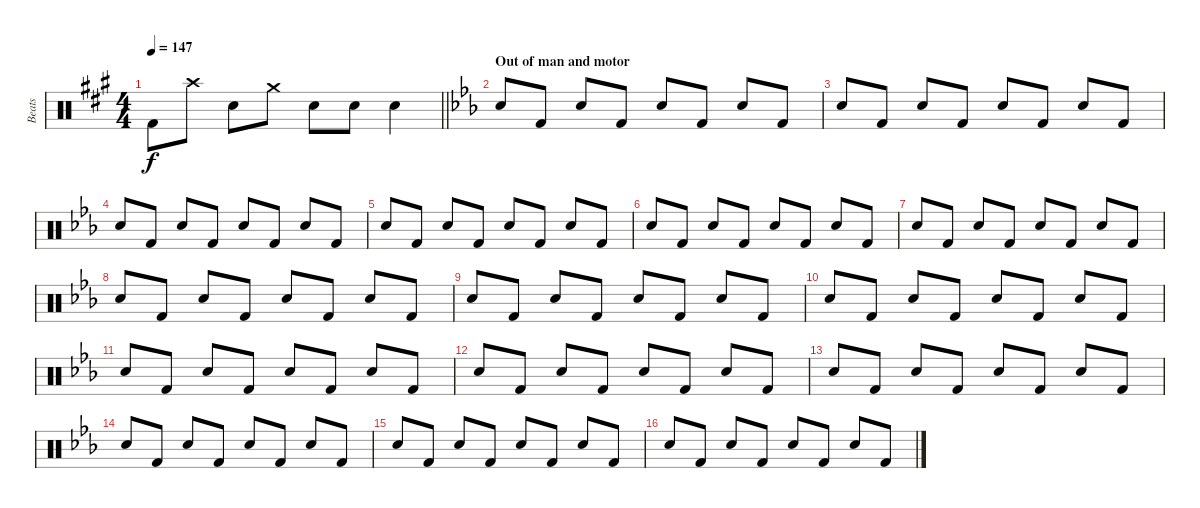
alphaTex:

\track ("Beats" "Beats") {instrument percussion}
\staff {score}
\articulation defaults
\ts (4 4)
\tempo 147
\clef neutral
\barLineRight lightlight
\ks a "Kick (hit) 2".8{dy f} "Crash high (hit)".8 "Snare (hit) 2".8 "Crash medium (hit)".8 "Snare (hit) 2".8 "Snare (hit) 2".8 "Snare (hit) 2".4
|
\section ("" "Out of man and motor")
\ks eb "Snare (hit) 2".8 "Kick (hit) 2".8 "Snare (hit) 2".8 "Kick (hit) 2".8 "Snare (hit) 2".8 "Kick (hit) 2".8 "Snare (hit) 2".8 "Kick (hit) 2".8
|
"Snare (hit) 2".8 "Kick (hit) 2".8 "Snare (hit) 2".8 "Kick (hit) 2".8 "Snare (hit) 2".8 "Kick (hit) 2".8 "Snare (hit) 2".8 "Kick (hit) 2".8 |
"Snare (hit) 2".8 "Kick (hit) 2".8 "Snare (hit) 2".8 "Kick (hit) 2".8 "Snare (hit) 2".8 "Kick (hit) 2".8 "Snare (hit) 2".8 "Kick (hit) 2".8 |
"Snare (hit) 2".8 "Kick (hit) 2".8 "Snare (hit) 2".8 "Kick (hit) 2".8 "Snare (hit) 2".8 "Kick (hit) 2".8 "Snare (hit) 2".8 "Kick (hit) 2".8 |
"Snare (hit) 2".8 "Kick (hit) 2".8 "Snare (hit) 2".8 "Kick (hit) 2".8 "Snare (hit) 2".8 "Kick (hit) 2".8 "Snare (hit) 2".8 "Kick (hit) 2".8 |
"Snare (hit) 2".8 "Kick (hit) 2".8 "Snare (hit) 2".8 "Kick (hit) 2".8 "Snare (hit) 2".8 "Kick (hit) 2".8 "Snare (hit) 2".8 "Kick (hit) 2".8 |
"Snare (hit) 2".8 "Kick (hit) 2".8 "Snare (hit) 2".8 "Kick (hit) 2".8 "Snare (hit) 2".8 "Kick (hit) 2".8 "Snare (hit) 2".8 "Kick (hit) 2".8 |
"Snare (hit) 2".8 "Kick (hit) 2".8 "Snare (hit) 2".8 "Kick (hit) 2".8 "Snare (hit) 2".8 "Kick (hit) 2".8 "Snare (hit) 2".8 "Kick (hit) 2".8 |
"Snare (hit) 2".8 "Kick (hit) 2".8 "Snare (hit) 2".8 "Kick (hit) 2".8 "Snare (hit) 2".8 "Kick (hit) 2".8 "Snare (hit) 2".8 "Kick (hit) 2".8 |
"Snare (hit) 2".8 "Kick (hit) 2".8 "Snare (hit) 2".8 "Kick (hit) 2".8 "Snare (hit) 2".8 "Kick (hit) 2".8 "Snare (hit) 2".8 "Kick (hit) 2".8 |
"Snare (hit) 2".8 "Kick (hit) 2".8 "Snare (hit) 2".8 "Kick (hit) 2".8 "Snare (hit) 2".8 "Kick (hit) 2".8 "Snare (hit) 2".8 "Kick (hit) 2".8 |
"Snare (hit) 2".8 "Kick (hit) 2".8 "Snare (hit) 2".8 "Kick (hit) 2".8 "Snare (hit) 2".8 "Kick (hit) 2".8 "Snare (hit) 2".8 "Kick (hit) 2".8 |
"Snare (hit) 2".8 "Kick (hit) 2".8 "Snare (hit) 2".8 "Kick (hit) 2".8 "Snare (hit) 2".8 "Kick (hit) 2".8 "Snare (hit) 2".8 "Kick (hit) 2".8 |
"Snare (hit) 2".8 "Kick (hit) 2".8 "Snare (hit) 2".8 "Kick (hit) 2".8 "Snare (hit) 2".8 "Kick (hit) 2".8 "Snare (hit) 2".8 "Kick (hit) 2".8 |
"Snare (hit) 2".8 "Kick (hit) 2".8 "Snare (hit) 2".8 "Kick (hit) 2".8 "Snare (hit) 2".8 "Kick (hit) 2".8 "Snare (hit) 2".8 "Kick (hit) 2".8
